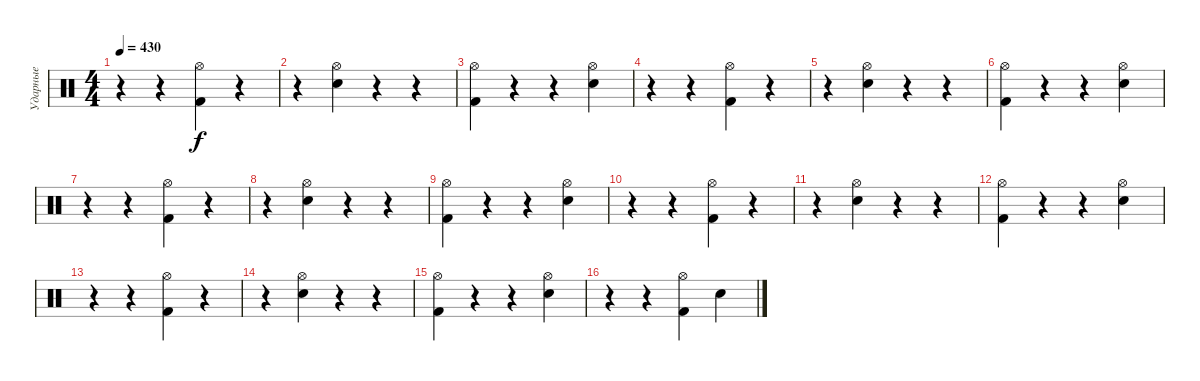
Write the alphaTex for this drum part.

\track ("Ударные" "Ударные") {instrument percussion}
\staff {score}
\articulation defaults
\ts (4 4)
\tempo 430
\clef neutral
\ks c
r.4{dy f} r.4 ("Kick (hit) 2" "Hi-Hat (open)").4 r.4 |
r.4 ("Electric Snare (hit)" "Hi-Hat (open)").4 r.4 r.4 |
("Kick (hit) 2" "Hi-Hat (open)").4 r.4 r.4 ("Electric Snare (hit)" "Hi-Hat (open)").4 |
r.4 r.4 ("Kick (hit) 2" "Hi-Hat (open)").4 r.4 |
r.4 ("Electric Snare (hit)" "Hi-Hat (open)").4 r.4 r.4 |
("Kick (hit) 2" "Hi-Hat (open)").4 r.4 r.4 ("Electric Snare (hit)" "Hi-Hat (open)").4 |
r.4 r.4 ("Kick (hit) 2" "Hi-Hat (open)").4 r.4 |
r.4 ("Electric Snare (hit)" "Hi-Hat (open)").4 r.4 r.4 |
("Kick (hit) 2" "Hi-Hat (open)").4 r.4 r.4 ("Electric Snare (hit)" "Hi-Hat (open)").4 |
r.4 r.4 ("Kick (hit) 2" "Hi-Hat (open)").4 r.4 |
r.4 ("Electric Snare (hit)" "Hi-Hat (open)").4 r.4 r.4 |
("Kick (hit) 2" "Hi-Hat (open)").4 r.4 r.4 ("Electric Snare (hit)" "Hi-Hat (open)").4 |
r.4 r.4 ("Kick (hit) 2" "Hi-Hat (open)").4 r.4 |
r.4 ("Electric Snare (hit)" "Hi-Hat (open)").4 r.4 r.4 |
("Kick (hit) 2" "Hi-Hat (open)").4 r.4 r.4 ("Electric Snare (hit)" "Hi-Hat (open)").4 |
r.4 r.4 ("Kick (hit) 2" "Hi-Hat (open)").4 "Electric Snare (hit)".4
